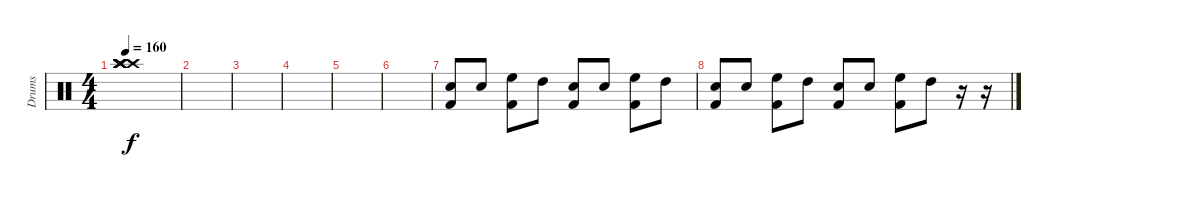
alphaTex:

\track ("Drums" "Drums") {instrument percussion}
\staff {score}
\articulation defaults
\ts (4 4)
\tempo 160
\clef neutral
\ks c
("Crash high (hit)" "Crash high (hit)" "Crash high (hit)" "Crash high (hit)" "Crash high (hit)" "Crash high (hit)").1{dy f} |
|
|
|
|
|
("Kick (hit) 2" "Snare (hit) 2").8 "Snare (hit) 2".8 ("Kick (hit) 2" "High Floor Tom (hit)").8 "High Tom (hit)".8 ("Kick (hit) 2" "Snare (hit) 2").8 "Snare (hit) 2".8 ("Kick (hit) 2" "High Floor Tom (hit)").8 "High Tom (hit)".8 |
("Kick (hit) 2" "Snare (hit) 2").8 "Snare (hit) 2".8 ("Kick (hit) 2" "High Floor Tom (hit)").8 "High Tom (hit)".8 ("Kick (hit) 2" "Snare (hit) 2").8 "Snare (hit) 2".8 ("Kick (hit) 2" "High Floor Tom (hit)").8 "High Tom (hit)".8 r.16 r.16
